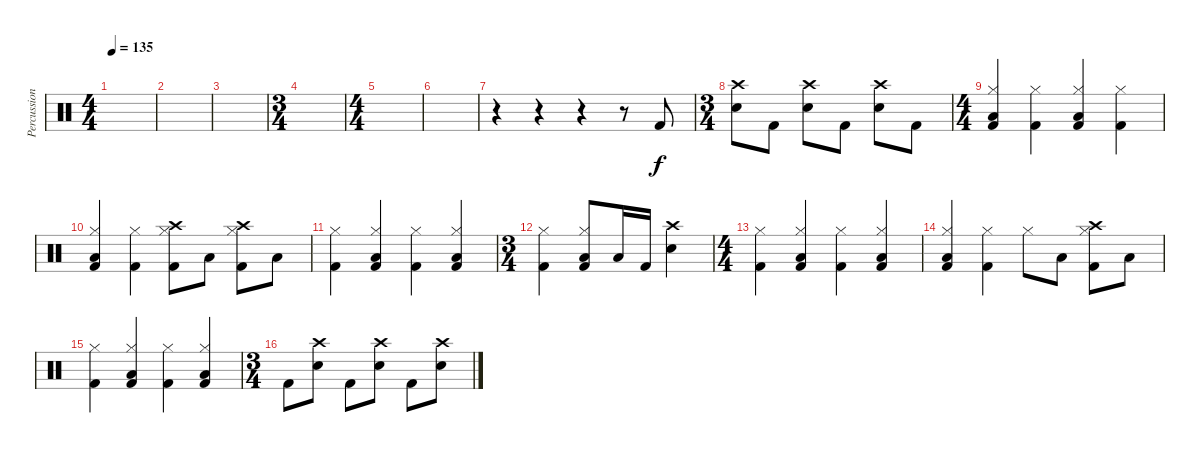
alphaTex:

\track ("Percussions" "Percussion") {instrument percussion}
\staff {score}
\articulation defaults
\ts (4 4)
\tempo 135
\clef neutral
\ks c
|
|
|
\ts (3 4)
|
\ts (4 4)
|
|
r.4 r.4 r.4 r.8 "Kick (hit) 2".8 |
\ts (3 4)
("Crash high (hit)" "Electric Snare (hit)").8 "Kick (hit) 2".8 ("Crash high (hit)" "Electric Snare (hit)").8 "Kick (hit) 2".8 ("Crash high (hit)" "Electric Snare (hit)").8 "Kick (hit) 2".8 |
\ts (4 4)
("Hi-Hat (closed)" "Low Tom (hit)" "Kick (hit) 2").4 ("Hi-Hat (closed)" "Kick (hit) 2").4 ("Hi-Hat (closed)" "Low Tom (hit)" "Kick (hit) 2").4 ("Hi-Hat (closed)" "Kick (hit) 2").4 |
("Hi-Hat (closed)" "Low Tom (hit)" "Kick (hit) 2").4 ("Hi-Hat (closed)" "Kick (hit) 2").4 ("Hi-Hat (closed)" "Crash high (hit)" "Kick (hit) 2").8 "Low Tom (hit)".8 ("Hi-Hat (closed)" "Crash high (hit)" "Kick (hit) 2").8 "Low Tom (hit)".8 |
("Hi-Hat (closed)" "Kick (hit) 2").4 ("Hi-Hat (closed)" "Low Tom (hit)" "Kick (hit) 2").4 ("Hi-Hat (closed)" "Kick (hit) 2").4 ("Hi-Hat (closed)" "Low Tom (hit)" "Kick (hit) 2").4 |
\ts (3 4)
("Hi-Hat (closed)" "Kick (hit) 2").4 ("Hi-Hat (closed)" "Low Tom (hit)" "Kick (hit) 2").8 "Low Tom (hit)".16 "Kick (hit) 2".16 ("Crash high (hit)" "Electric Snare (hit)").4 |
\ts (4 4)
("Hi-Hat (closed)" "Kick (hit) 2").4 ("Hi-Hat (closed)" "Low Tom (hit)" "Kick (hit) 2").4 ("Hi-Hat (closed)" "Kick (hit) 2").4 ("Hi-Hat (closed)" "Low Tom (hit)" "Kick (hit) 2").4 |
("Hi-Hat (closed)" "Low Tom (hit)" "Kick (hit) 2").4 ("Hi-Hat (closed)" "Kick (hit) 2").4 "Hi-Hat (closed)".8 "Low Tom (hit)".8 ("Hi-Hat (closed)" "Crash high (hit)" "Kick (hit) 2").8 "Low Tom (hit)".8 |
("Hi-Hat (closed)" "Kick (hit) 2").4 ("Hi-Hat (closed)" "Low Tom (hit)" "Kick (hit) 2").4 ("Hi-Hat (closed)" "Kick (hit) 2").4 ("Hi-Hat (closed)" "Low Tom (hit)" "Kick (hit) 2").4 |
\ts (3 4)
"Kick (hit) 2".8 ("Crash high (hit)" "Electric Snare (hit)").8 "Kick (hit) 2".8 ("Crash high (hit)" "Electric Snare (hit)").8 "Kick (hit) 2".8 ("Crash high (hit)" "Electric Snare (hit)").8
